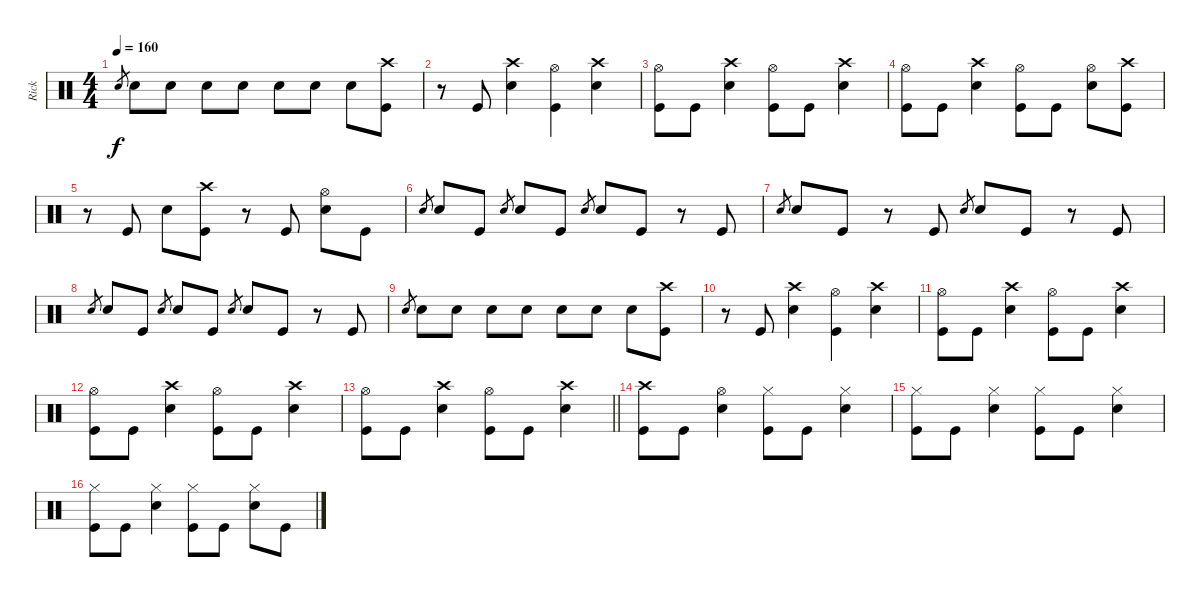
\track ("Rick" "Rick") {instrument percussion}
\staff {score}
\articulation defaults
\ts (4 4)
\tempo 160
\clef neutral
\ks c "Snare (hit) 2".8{gr dy f} "Snare (hit) 2".8 "Snare (hit) 2".8 "Snare (hit) 2".8 "Snare (hit) 2".8 "Snare (hit) 2".8 "Snare (hit) 2".8 "Snare (hit) 2".8
("Crash high (hit)" "Kick (hit)").8 |
r.8 "Kick (hit)".8 ("Crash high (hit)" "Snare (hit) 2").4 ("Hi-Hat (open)" "Kick (hit)").4 ("Crash high (hit)" "Snare (hit) 2").4 |
("Hi-Hat (open)" "Kick (hit)").8 "Kick (hit)".8 ("Crash high (hit)" "Snare (hit) 2").4 ("Hi-Hat (open)" "Kick (hit)").8 "Kick (hit)".8 ("Crash high (hit)" "Snare (hit) 2").4 |
("Hi-Hat (open)" "Kick (hit)").8 "Kick (hit)".8 ("Crash high (hit)" "Snare (hit) 2").4 ("Hi-Hat (open)" "Kick (hit)").8 "Kick (hit)".8 ("Hi-Hat (open)" "Snare (hit) 2").8 ("Crash high (hit)" "Kick (hit)").8 |
r.8 "Kick (hit)".8 "Snare (hit) 2".8 ("Crash high (hit)" "Kick (hit)").8 r.8 "Kick (hit)".8 ("Hi-Hat (open)" "Snare (hit) 2").8 "Kick (hit)".8 |
"Snare (hit) 2".8{gr} "Snare (hit) 2".8 "Kick (hit)".8 "Snare (hit) 2".8{gr} "Snare (hit) 2".8 "Kick (hit)".8 "Snare (hit) 2".8{gr} "Snare (hit) 2".8 "Kick (hit)".8 r.8 "Kick (hit)".8 |
"Snare (hit) 2".8{gr} "Snare (hit) 2".8 "Kick (hit)".8 r.8 "Kick (hit)".8 "Snare (hit) 2".8{gr} "Snare (hit) 2".8 "Kick (hit)".8 r.8 "Kick (hit)".8 |
"Snare (hit) 2".8{gr} "Snare (hit) 2".8 "Kick (hit)".8 "Snare (hit) 2".8{gr} "Snare (hit) 2".8 "Kick (hit)".8 "Snare (hit) 2".8{gr} "Snare (hit) 2".8 "Kick (hit)".8 r.8 "Kick (hit)".8 |
"Snare (hit) 2".8{gr} "Snare (hit) 2".8 "Snare (hit) 2".8 "Snare (hit) 2".8 "Snare (hit) 2".8 "Snare (hit) 2".8 "Snare (hit) 2".8 "Snare (hit) 2".8 ("Crash high (hit)" "Kick (hit)").8 |
r.8 "Kick (hit)".8 ("Crash high (hit)" "Snare (hit) 2").4 ("Hi-Hat (open)" "Kick (hit)").4 ("Crash high (hit)" "Snare (hit) 2").4 |
("Hi-Hat (open)" "Kick (hit)").8 "Kick (hit)".8 ("Crash high (hit)" "Snare (hit) 2").4 ("Hi-Hat (open)" "Kick (hit)").8 "Kick (hit)".8 ("Crash high (hit)" "Snare (hit) 2").4 |
("Hi-Hat (open)" "Kick (hit)").8 "Kick (hit)".8 ("Crash high (hit)" "Snare (hit) 2").4 ("Hi-Hat (open)" "Kick (hit)").8 "Kick (hit)".8 ("Crash high (hit)" "Snare (hit) 2").4 |
\barLineRight lightlight
("Hi-Hat (open)" "Kick (hit)").8 "Kick (hit)".8 ("Crash high (hit)" "Snare (hit) 2").4 ("Hi-Hat (open)" "Kick (hit)").8 "Kick (hit)".8 ("Crash high (hit)" "Snare (hit) 2").4 |
("Crash high (hit)" "Kick (hit)").8 "Kick (hit)".8 ("Hi-Hat (open)" "Snare (hit) 2").4 ("Hi-Hat (closed)" "Kick (hit)").8 "Kick (hit)".8 ("Hi-Hat (closed)" "Snare (hit) 2").4 |
("Hi-Hat (closed)" "Kick (hit)").8 "Kick (hit)".8 ("Hi-Hat (closed)" "Snare (hit) 2").4 ("Hi-Hat (closed)" "Kick (hit)").8 "Kick (hit)".8 ("Hi-Hat (closed)" "Snare (hit) 2").4 |
("Hi-Hat (closed)" "Kick (hit)").8 "Kick (hit)".8 ("Hi-Hat (closed)" "Snare (hit) 2").4 ("Hi-Hat (closed)" "Kick (hit)").8 "Kick (hit)".8 ("Hi-Hat (closed)" "Snare (hit) 2").8 "Kick (hit)".8
